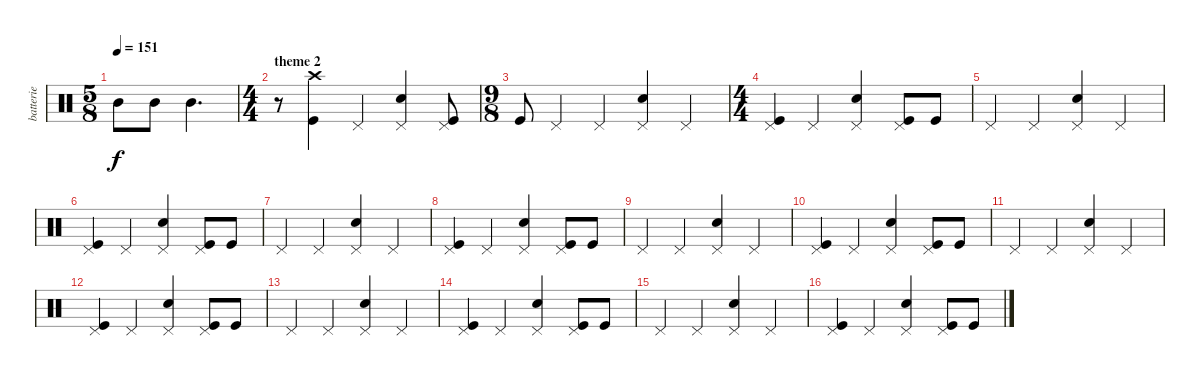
\track ("batterie" "batterie") {instrument percussion}
\staff {score}
\articulation defaults
\ts (5 8)
\tempo 151
\clef neutral
\ks c "Mid Tom (hit)".8{dy f} "Mid Tom (hit)".8 "Mid Tom (hit)".4{d}
|
\ts (4 4)
\section ("" "theme 2")
r.8 ("Crash high (hit)" "Kick (hit)").4 "Pedal Hi-Hat (hit)".4 ("Pedal Hi-Hat (hit)" "Snare (hit) 2").4 ("Pedal Hi-Hat (hit)" "Kick (hit)").8 |
\ts (9 8)
"Kick (hit)".8 "Pedal Hi-Hat (hit)".4 "Pedal Hi-Hat (hit)".4 ("Pedal Hi-Hat (hit)" "Snare (hit) 2").4 "Pedal Hi-Hat (hit)".4 |
\ts (4 4)
("Pedal Hi-Hat (hit)" "Kick (hit)").4 "Pedal Hi-Hat (hit)".4 ("Pedal Hi-Hat (hit)" "Snare (hit) 2").4 ("Pedal Hi-Hat (hit)" "Kick (hit)").8 "Kick (hit)".8 |
"Pedal Hi-Hat (hit)".4 "Pedal Hi-Hat (hit)".4 ("Pedal Hi-Hat (hit)" "Snare (hit) 2").4 "Pedal Hi-Hat (hit)".4 |
("Pedal Hi-Hat (hit)" "Kick (hit)").4 "Pedal Hi-Hat (hit)".4 ("Pedal Hi-Hat (hit)" "Snare (hit) 2").4 ("Pedal Hi-Hat (hit)" "Kick (hit)").8 "Kick (hit)".8 |
"Pedal Hi-Hat (hit)".4 "Pedal Hi-Hat (hit)".4 ("Pedal Hi-Hat (hit)" "Snare (hit) 2").4 "Pedal Hi-Hat (hit)".4 |
("Pedal Hi-Hat (hit)" "Kick (hit)").4 "Pedal Hi-Hat (hit)".4 ("Pedal Hi-Hat (hit)" "Snare (hit) 2").4 ("Pedal Hi-Hat (hit)" "Kick (hit)").8 "Kick (hit)".8 |
"Pedal Hi-Hat (hit)".4 "Pedal Hi-Hat (hit)".4 ("Pedal Hi-Hat (hit)" "Snare (hit) 2").4 "Pedal Hi-Hat (hit)".4 |
("Pedal Hi-Hat (hit)" "Kick (hit)").4 "Pedal Hi-Hat (hit)".4 ("Pedal Hi-Hat (hit)" "Snare (hit) 2").4 ("Pedal Hi-Hat (hit)" "Kick (hit)").8 "Kick (hit)".8 |
"Pedal Hi-Hat (hit)".4 "Pedal Hi-Hat (hit)".4 ("Pedal Hi-Hat (hit)" "Snare (hit) 2").4 "Pedal Hi-Hat (hit)".4 |
("Pedal Hi-Hat (hit)" "Kick (hit)").4 "Pedal Hi-Hat (hit)".4 ("Pedal Hi-Hat (hit)" "Snare (hit) 2").4 ("Pedal Hi-Hat (hit)" "Kick (hit)").8 "Kick (hit)".8 |
"Pedal Hi-Hat (hit)".4 "Pedal Hi-Hat (hit)".4 ("Pedal Hi-Hat (hit)" "Snare (hit) 2").4 "Pedal Hi-Hat (hit)".4 |
("Pedal Hi-Hat (hit)" "Kick (hit)").4 "Pedal Hi-Hat (hit)".4 ("Pedal Hi-Hat (hit)" "Snare (hit) 2").4 ("Pedal Hi-Hat (hit)" "Kick (hit)").8 "Kick (hit)".8 |
"Pedal Hi-Hat (hit)".4 "Pedal Hi-Hat (hit)".4 ("Pedal Hi-Hat (hit)" "Snare (hit) 2").4 "Pedal Hi-Hat (hit)".4 |
("Pedal Hi-Hat (hit)" "Kick (hit)").4 "Pedal Hi-Hat (hit)".4 ("Pedal Hi-Hat (hit)" "Snare (hit) 2").4 ("Pedal Hi-Hat (hit)" "Kick (hit)").8 "Kick (hit)".8
